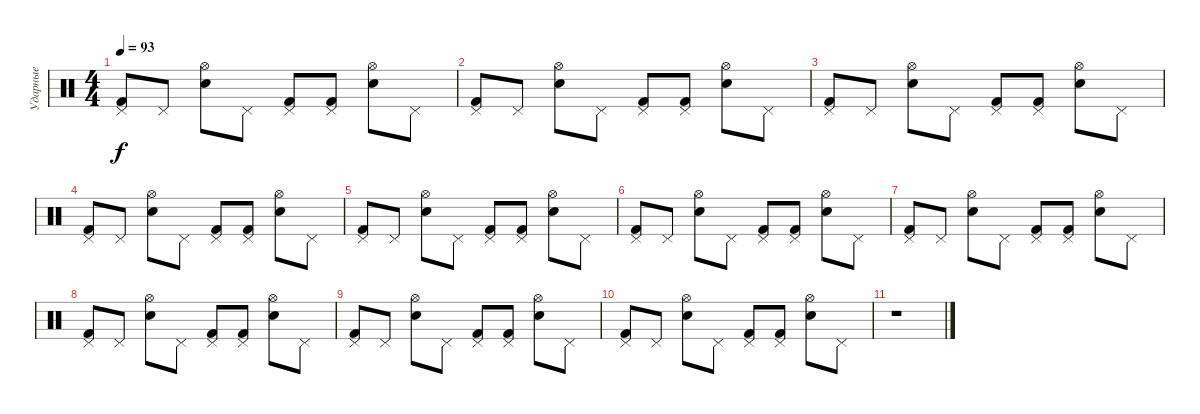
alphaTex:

\track ("Ударные" "Ударные") {instrument percussion}
\staff {score}
\articulation defaults
\ts (4 4)
\tempo 93
\clef neutral
\ks c
("Kick (hit) 2" "Pedal Hi-Hat (hit)").8{dy f} "Pedal Hi-Hat (hit)".8 ("Hi-Hat (open)" "Snare (hit) 2").8 "Pedal Hi-Hat (hit)".8 ("Kick (hit) 2" "Pedal Hi-Hat (hit)").8 ("Kick (hit) 2" "Pedal Hi-Hat (hit)").8 ("Hi-Hat (open)" "Snare (hit) 2").8 "Pedal Hi-Hat (hit)".8 |
("Kick (hit) 2" "Pedal Hi-Hat (hit)").8 "Pedal Hi-Hat (hit)".8 ("Hi-Hat (open)" "Snare (hit) 2").8 "Pedal Hi-Hat (hit)".8 ("Kick (hit) 2" "Pedal Hi-Hat (hit)").8 ("Kick (hit) 2" "Pedal Hi-Hat (hit)").8 ("Hi-Hat (open)" "Snare (hit) 2").8 "Pedal Hi-Hat (hit)".8 |
("Kick (hit) 2" "Pedal Hi-Hat (hit)").8 "Pedal Hi-Hat (hit)".8 ("Hi-Hat (open)" "Snare (hit) 2").8 "Pedal Hi-Hat (hit)".8 ("Kick (hit) 2" "Pedal Hi-Hat (hit)").8 ("Kick (hit) 2" "Pedal Hi-Hat (hit)").8 ("Hi-Hat (open)" "Snare (hit) 2").8 "Pedal Hi-Hat (hit)".8 |
("Kick (hit) 2" "Pedal Hi-Hat (hit)").8 "Pedal Hi-Hat (hit)".8 ("Hi-Hat (open)" "Snare (hit) 2").8 "Pedal Hi-Hat (hit)".8 ("Kick (hit) 2" "Pedal Hi-Hat (hit)").8 ("Kick (hit) 2" "Pedal Hi-Hat (hit)").8 ("Hi-Hat (open)" "Snare (hit) 2").8 "Pedal Hi-Hat (hit)".8 |
("Kick (hit) 2" "Pedal Hi-Hat (hit)").8 "Pedal Hi-Hat (hit)".8 ("Hi-Hat (open)" "Snare (hit) 2").8 "Pedal Hi-Hat (hit)".8 ("Kick (hit) 2" "Pedal Hi-Hat (hit)").8 ("Kick (hit) 2" "Pedal Hi-Hat (hit)").8 ("Hi-Hat (open)" "Snare (hit) 2").8 "Pedal Hi-Hat (hit)".8 |
("Kick (hit) 2" "Pedal Hi-Hat (hit)").8 "Pedal Hi-Hat (hit)".8 ("Hi-Hat (open)" "Snare (hit) 2").8 "Pedal Hi-Hat (hit)".8 ("Kick (hit) 2" "Pedal Hi-Hat (hit)").8 ("Kick (hit) 2" "Pedal Hi-Hat (hit)").8 ("Hi-Hat (open)" "Snare (hit) 2").8 "Pedal Hi-Hat (hit)".8 |
("Kick (hit) 2" "Pedal Hi-Hat (hit)").8 "Pedal Hi-Hat (hit)".8 ("Hi-Hat (open)" "Snare (hit) 2").8 "Pedal Hi-Hat (hit)".8 ("Kick (hit) 2" "Pedal Hi-Hat (hit)").8 ("Kick (hit) 2" "Pedal Hi-Hat (hit)").8 ("Hi-Hat (open)" "Snare (hit) 2").8 "Pedal Hi-Hat (hit)".8 |
("Kick (hit) 2" "Pedal Hi-Hat (hit)").8 "Pedal Hi-Hat (hit)".8 ("Hi-Hat (open)" "Snare (hit) 2").8 "Pedal Hi-Hat (hit)".8 ("Kick (hit) 2" "Pedal Hi-Hat (hit)").8 ("Kick (hit) 2" "Pedal Hi-Hat (hit)").8 ("Hi-Hat (open)" "Snare (hit) 2").8 "Pedal Hi-Hat (hit)".8 |
("Kick (hit) 2" "Pedal Hi-Hat (hit)").8 "Pedal Hi-Hat (hit)".8 ("Hi-Hat (open)" "Snare (hit) 2").8 "Pedal Hi-Hat (hit)".8 ("Kick (hit) 2" "Pedal Hi-Hat (hit)").8 ("Kick (hit) 2" "Pedal Hi-Hat (hit)").8 ("Hi-Hat (open)" "Snare (hit) 2").8 "Pedal Hi-Hat (hit)".8 |
("Kick (hit) 2" "Pedal Hi-Hat (hit)").8 "Pedal Hi-Hat (hit)".8 ("Hi-Hat (open)" "Snare (hit) 2").8 "Pedal Hi-Hat (hit)".8 ("Kick (hit) 2" "Pedal Hi-Hat (hit)").8 ("Kick (hit) 2" "Pedal Hi-Hat (hit)").8 ("Hi-Hat (open)" "Snare (hit) 2").8 "Pedal Hi-Hat (hit)".8 |
r.1
